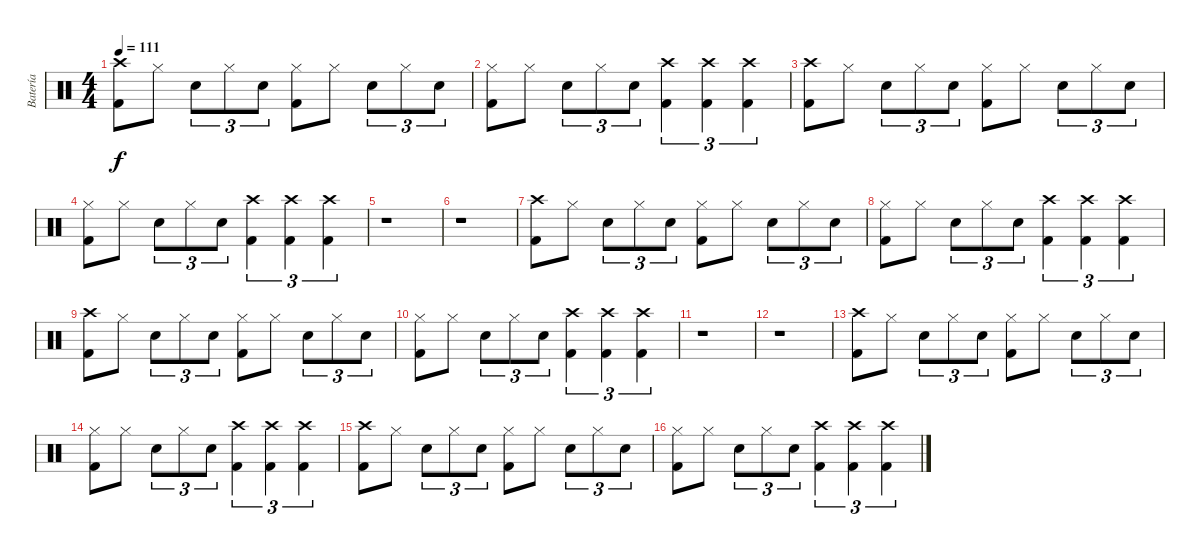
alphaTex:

\track ("Batería" "Batería") {instrument percussion}
\staff {score}
\articulation defaults
\ts (4 4)
\tempo 111
\clef neutral
\ks c
("Crash high (hit)" "Kick (hit) 2").8{dy f} "Hi-Hat (closed)".8 "Snare (hit) 2".8{tu (3 2)} "Hi-Hat (closed)".8{tu (3 2)} "Snare (hit) 2".8{tu (3 2)} ("Hi-Hat (closed)" "Kick (hit) 2").8 "Hi-Hat (closed)".8 "Snare (hit) 2".8{tu (3 2)} "Hi-Hat (closed)".8{tu (3 2)} "Snare (hit) 2".8{tu (3 2)} |
("Hi-Hat (closed)" "Kick (hit) 2").8 "Hi-Hat (closed)".8 "Snare (hit) 2".8{tu (3 2)} "Hi-Hat (closed)".8{tu (3 2)} "Snare (hit) 2".8{tu (3 2)} ("Crash high (hit)" "Kick (hit) 2").4{tu (3 2)} ("Crash high (hit)" "Kick (hit) 2").4{tu (3 2)} ("Crash high (hit)" "Kick (hit) 2").4{tu (3 2)} |
("Crash high (hit)" "Kick (hit) 2").8 "Hi-Hat (closed)".8 "Snare (hit) 2".8{tu (3 2)} "Hi-Hat (closed)".8{tu (3 2)} "Snare (hit) 2".8{tu (3 2)} ("Hi-Hat (closed)" "Kick (hit) 2").8 "Hi-Hat (closed)".8 "Snare (hit) 2".8{tu (3 2)} "Hi-Hat (closed)".8{tu (3 2)} "Snare (hit) 2".8{tu (3 2)} |
("Hi-Hat (closed)" "Kick (hit) 2").8 "Hi-Hat (closed)".8 "Snare (hit) 2".8{tu (3 2)} "Hi-Hat (closed)".8{tu (3 2)} "Snare (hit) 2".8{tu (3 2)} ("Crash high (hit)" "Kick (hit) 2").4{tu (3 2)} ("Crash high (hit)" "Kick (hit) 2").4{tu (3 2)} ("Crash high (hit)" "Kick (hit) 2").4{tu (3 2)} |
r.1 |
r.1 |
("Crash high (hit)" "Kick (hit) 2").8 "Hi-Hat (closed)".8 "Snare (hit) 2".8{tu (3 2)} "Hi-Hat (closed)".8{tu (3 2)} "Snare (hit) 2".8{tu (3 2)} ("Hi-Hat (closed)" "Kick (hit) 2").8 "Hi-Hat (closed)".8 "Snare (hit) 2".8{tu (3 2)} "Hi-Hat (closed)".8{tu (3 2)} "Snare (hit) 2".8{tu (3 2)} |
("Hi-Hat (closed)" "Kick (hit) 2").8 "Hi-Hat (closed)".8 "Snare (hit) 2".8{tu (3 2)} "Hi-Hat (closed)".8{tu (3 2)} "Snare (hit) 2".8{tu (3 2)} ("Crash high (hit)" "Kick (hit) 2").4{tu (3 2)} ("Crash high (hit)" "Kick (hit) 2").4{tu (3 2)} ("Crash high (hit)" "Kick (hit) 2").4{tu (3 2)} |
("Crash high (hit)" "Kick (hit) 2").8 "Hi-Hat (closed)".8 "Snare (hit) 2".8{tu (3 2)} "Hi-Hat (closed)".8{tu (3 2)} "Snare (hit) 2".8{tu (3 2)} ("Hi-Hat (closed)" "Kick (hit) 2").8 "Hi-Hat (closed)".8 "Snare (hit) 2".8{tu (3 2)} "Hi-Hat (closed)".8{tu (3 2)} "Snare (hit) 2".8{tu (3 2)} |
("Hi-Hat (closed)" "Kick (hit) 2").8 "Hi-Hat (closed)".8 "Snare (hit) 2".8{tu (3 2)} "Hi-Hat (closed)".8{tu (3 2)} "Snare (hit) 2".8{tu (3 2)} ("Crash high (hit)" "Kick (hit) 2").4{tu (3 2)} ("Crash high (hit)" "Kick (hit) 2").4{tu (3 2)} ("Crash high (hit)" "Kick (hit) 2").4{tu (3 2)} |
r.1 |
r.1 |
("Crash high (hit)" "Kick (hit) 2").8 "Hi-Hat (closed)".8 "Snare (hit) 2".8{tu (3 2)} "Hi-Hat (closed)".8{tu (3 2)} "Snare (hit) 2".8{tu (3 2)} ("Hi-Hat (closed)" "Kick (hit) 2").8 "Hi-Hat (closed)".8 "Snare (hit) 2".8{tu (3 2)} "Hi-Hat (closed)".8{tu (3 2)} "Snare (hit) 2".8{tu (3 2)} |
("Hi-Hat (closed)" "Kick (hit) 2").8 "Hi-Hat (closed)".8 "Snare (hit) 2".8{tu (3 2)} "Hi-Hat (closed)".8{tu (3 2)} "Snare (hit) 2".8{tu (3 2)} ("Crash high (hit)" "Kick (hit) 2").4{tu (3 2)} ("Crash high (hit)" "Kick (hit) 2").4{tu (3 2)} ("Crash high (hit)" "Kick (hit) 2").4{tu (3 2)} |
("Crash high (hit)" "Kick (hit) 2").8 "Hi-Hat (closed)".8 "Snare (hit) 2".8{tu (3 2)} "Hi-Hat (closed)".8{tu (3 2)} "Snare (hit) 2".8{tu (3 2)} ("Hi-Hat (closed)" "Kick (hit) 2").8 "Hi-Hat (closed)".8 "Snare (hit) 2".8{tu (3 2)} "Hi-Hat (closed)".8{tu (3 2)} "Snare (hit) 2".8{tu (3 2)} |
("Hi-Hat (closed)" "Kick (hit) 2").8 "Hi-Hat (closed)".8 "Snare (hit) 2".8{tu (3 2)} "Hi-Hat (closed)".8{tu (3 2)} "Snare (hit) 2".8{tu (3 2)} ("Crash high (hit)" "Kick (hit) 2").4{tu (3 2)} ("Crash high (hit)" "Kick (hit) 2").4{tu (3 2)} ("Crash high (hit)" "Kick (hit) 2").4{tu (3 2)}
